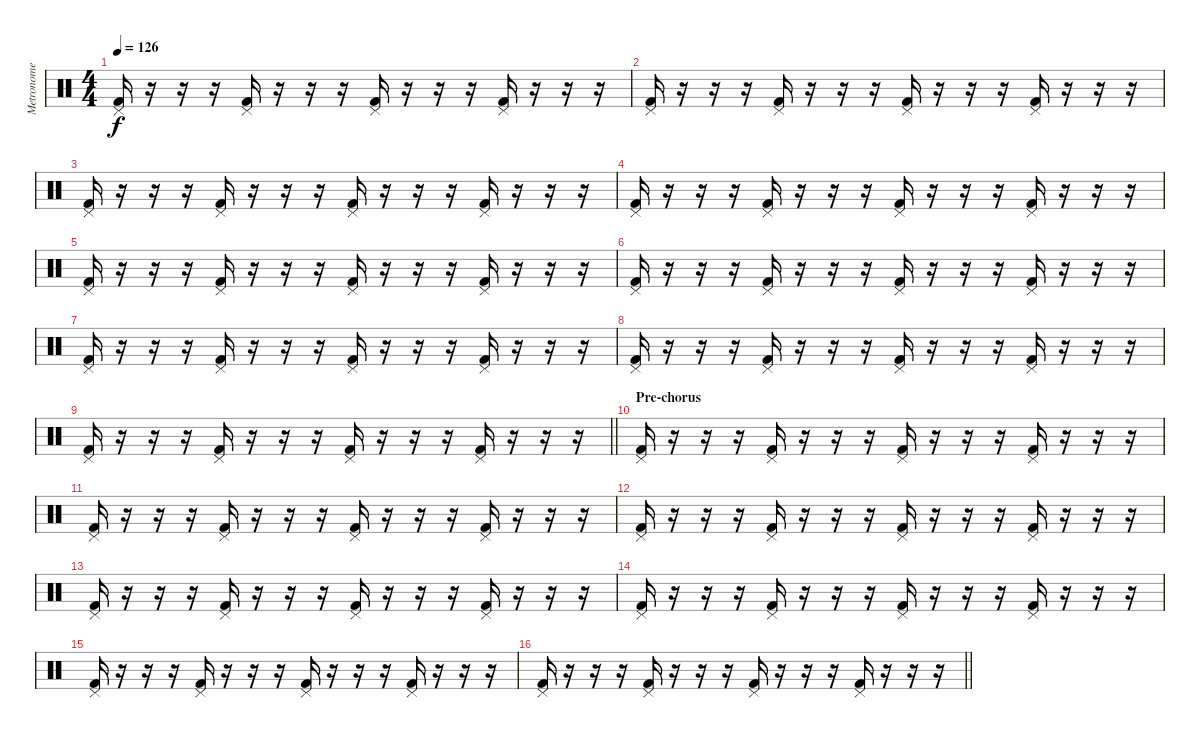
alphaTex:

\track ("Metronome" "Metronome") {mute instrument percussion}
\staff {score}
\articulation defaults
\ts (4 4)
\tempo 126
\clef neutral
\ks c
("Pedal Hi-Hat (hit)" "Kick (hit) 2").16{dy f} r.16 r.16 r.16 ("Pedal Hi-Hat (hit)" "Kick (hit) 2").16 r.16 r.16 r.16 ("Pedal Hi-Hat (hit)" "Kick (hit) 2").16 r.16 r.16 r.16 ("Pedal Hi-Hat (hit)" "Kick (hit) 2").16 r.16 r.16 r.16 |
("Pedal Hi-Hat (hit)" "Kick (hit) 2").16 r.16 r.16 r.16 ("Pedal Hi-Hat (hit)" "Kick (hit) 2").16 r.16 r.16 r.16 ("Pedal Hi-Hat (hit)" "Kick (hit) 2").16 r.16 r.16 r.16 ("Pedal Hi-Hat (hit)" "Kick (hit) 2").16 r.16 r.16 r.16 |
("Pedal Hi-Hat (hit)" "Kick (hit) 2").16 r.16 r.16 r.16 ("Pedal Hi-Hat (hit)" "Kick (hit) 2").16 r.16 r.16 r.16 ("Pedal Hi-Hat (hit)" "Kick (hit) 2").16 r.16 r.16 r.16 ("Pedal Hi-Hat (hit)" "Kick (hit) 2").16 r.16 r.16 r.16 |
("Pedal Hi-Hat (hit)" "Kick (hit) 2").16 r.16 r.16 r.16 ("Pedal Hi-Hat (hit)" "Kick (hit) 2").16 r.16 r.16 r.16 ("Pedal Hi-Hat (hit)" "Kick (hit) 2").16 r.16 r.16 r.16 ("Pedal Hi-Hat (hit)" "Kick (hit) 2").16 r.16 r.16 r.16 |
("Pedal Hi-Hat (hit)" "Kick (hit) 2").16 r.16 r.16 r.16 ("Pedal Hi-Hat (hit)" "Kick (hit) 2").16 r.16 r.16 r.16 ("Pedal Hi-Hat (hit)" "Kick (hit) 2").16 r.16 r.16 r.16 ("Pedal Hi-Hat (hit)" "Kick (hit) 2").16 r.16 r.16 r.16 |
("Pedal Hi-Hat (hit)" "Kick (hit) 2").16 r.16 r.16 r.16 ("Pedal Hi-Hat (hit)" "Kick (hit) 2").16 r.16 r.16 r.16 ("Pedal Hi-Hat (hit)" "Kick (hit) 2").16 r.16 r.16 r.16 ("Pedal Hi-Hat (hit)" "Kick (hit) 2").16 r.16 r.16 r.16 |
("Pedal Hi-Hat (hit)" "Kick (hit) 2").16 r.16 r.16 r.16 ("Pedal Hi-Hat (hit)" "Kick (hit) 2").16 r.16 r.16 r.16 ("Pedal Hi-Hat (hit)" "Kick (hit) 2").16 r.16 r.16 r.16 ("Pedal Hi-Hat (hit)" "Kick (hit) 2").16 r.16 r.16 r.16 |
("Pedal Hi-Hat (hit)" "Kick (hit) 2").16 r.16 r.16 r.16 ("Pedal Hi-Hat (hit)" "Kick (hit) 2").16 r.16 r.16 r.16 ("Pedal Hi-Hat (hit)" "Kick (hit) 2").16 r.16 r.16 r.16 ("Pedal Hi-Hat (hit)" "Kick (hit) 2").16 r.16 r.16 r.16 |
\barLineRight lightlight
("Pedal Hi-Hat (hit)" "Kick (hit) 2").16 r.16 r.16 r.16 ("Pedal Hi-Hat (hit)" "Kick (hit) 2").16 r.16 r.16 r.16 ("Pedal Hi-Hat (hit)" "Kick (hit) 2").16 r.16 r.16 r.16 ("Pedal Hi-Hat (hit)" "Kick (hit) 2").16 r.16 r.16 r.16 |
\section ("" "Pre-chorus")
("Pedal Hi-Hat (hit)" "Kick (hit) 2").16 r.16 r.16 r.16 ("Pedal Hi-Hat (hit)" "Kick (hit) 2").16 r.16 r.16 r.16 ("Pedal Hi-Hat (hit)" "Kick (hit) 2").16 r.16 r.16 r.16 ("Pedal Hi-Hat (hit)" "Kick (hit) 2").16 r.16 r.16 r.16 |
("Pedal Hi-Hat (hit)" "Kick (hit) 2").16 r.16 r.16 r.16 ("Pedal Hi-Hat (hit)" "Kick (hit) 2").16 r.16 r.16 r.16 ("Pedal Hi-Hat (hit)" "Kick (hit) 2").16 r.16 r.16 r.16 ("Pedal Hi-Hat (hit)" "Kick (hit) 2").16 r.16 r.16 r.16 |
("Pedal Hi-Hat (hit)" "Kick (hit) 2").16 r.16 r.16 r.16 ("Pedal Hi-Hat (hit)" "Kick (hit) 2").16 r.16 r.16 r.16 ("Pedal Hi-Hat (hit)" "Kick (hit) 2").16 r.16 r.16 r.16 ("Pedal Hi-Hat (hit)" "Kick (hit) 2").16 r.16 r.16 r.16 |
("Pedal Hi-Hat (hit)" "Kick (hit) 2").16 r.16 r.16 r.16 ("Pedal Hi-Hat (hit)" "Kick (hit) 2").16 r.16 r.16 r.16 ("Pedal Hi-Hat (hit)" "Kick (hit) 2").16 r.16 r.16 r.16 ("Pedal Hi-Hat (hit)" "Kick (hit) 2").16 r.16 r.16 r.16 |
("Pedal Hi-Hat (hit)" "Kick (hit) 2").16 r.16 r.16 r.16 ("Pedal Hi-Hat (hit)" "Kick (hit) 2").16 r.16 r.16 r.16 ("Pedal Hi-Hat (hit)" "Kick (hit) 2").16 r.16 r.16 r.16 ("Pedal Hi-Hat (hit)" "Kick (hit) 2").16 r.16 r.16 r.16 |
("Pedal Hi-Hat (hit)" "Kick (hit) 2").16 r.16 r.16 r.16 ("Pedal Hi-Hat (hit)" "Kick (hit) 2").16 r.16 r.16 r.16 ("Pedal Hi-Hat (hit)" "Kick (hit) 2").16 r.16 r.16 r.16 ("Pedal Hi-Hat (hit)" "Kick (hit) 2").16 r.16 r.16 r.16 |
\barLineRight lightlight
("Pedal Hi-Hat (hit)" "Kick (hit) 2").16 r.16 r.16 r.16 ("Pedal Hi-Hat (hit)" "Kick (hit) 2").16 r.16 r.16 r.16 ("Pedal Hi-Hat (hit)" "Kick (hit) 2").16 r.16 r.16 r.16 ("Pedal Hi-Hat (hit)" "Kick (hit) 2").16 r.16 r.16 r.16
